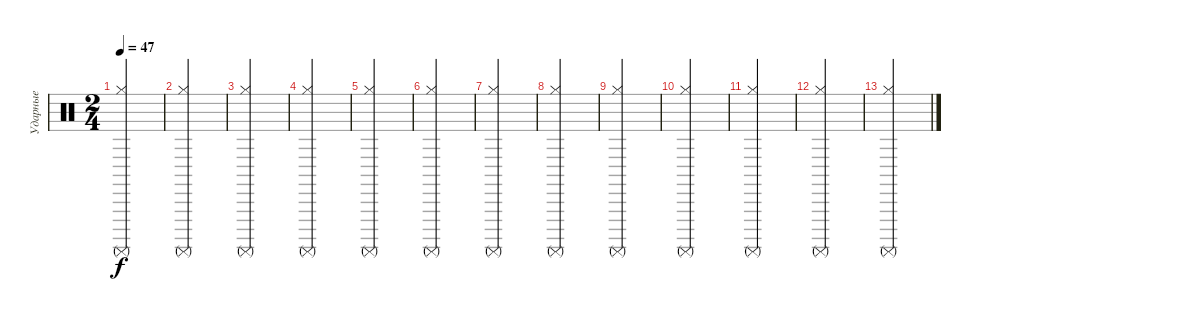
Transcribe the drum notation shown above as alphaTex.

\track ("Ударные" "Ударные") {instrument percussion}
\staff {score}
\articulation defaults
\ts (2 4)
\tempo 47
\clef neutral
\ks c
("Surdo (mute)" "Hi-Hat (closed)").2{dy f} |
("Surdo (mute)" "Hi-Hat (closed)").2 |
("Surdo (mute)" "Hi-Hat (closed)").2 |
("Surdo (mute)" "Hi-Hat (closed)").2 |
("Surdo (mute)" "Hi-Hat (closed)").2 |
("Surdo (mute)" "Hi-Hat (closed)").2 |
("Surdo (mute)" "Hi-Hat (closed)").2 |
("Surdo (mute)" "Hi-Hat (closed)").2 |
("Surdo (mute)" "Hi-Hat (closed)").2 |
("Surdo (mute)" "Hi-Hat (closed)").2 |
("Surdo (mute)" "Hi-Hat (closed)").2 |
("Surdo (mute)" "Hi-Hat (closed)").2 |
("Surdo (mute)" "Hi-Hat (closed)").2
